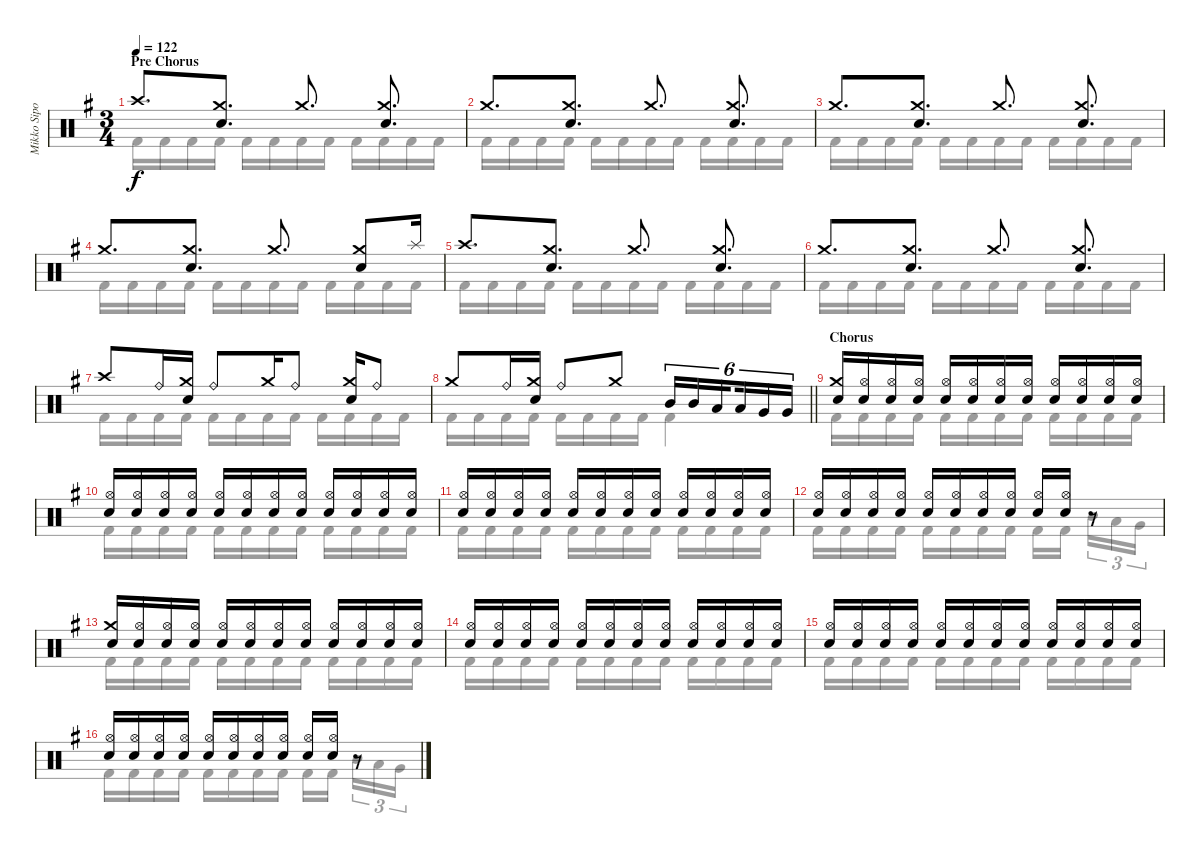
\track ("Mikko Sipola - drums" "Mikko Sipo") {instrument percussion}
\staff {score}
\articulation defaults
\voice
\ts (3 4)
\section ("" "Pre Chorus")
\tempo 122
\clef neutral
\ks eminor "Crash high (hit)".8{d dy f}
("Crash medium (hit)" "Electric Snare (hit)").8{d} "Crash medium (hit)".8{d} ("Crash medium (hit)" "Electric Snare (hit)").8{d} |
"Crash medium (hit)".8{d} ("Crash medium (hit)" "Electric Snare (hit)").8{d} "Crash medium (hit)".8{d} ("Crash medium (hit)" "Electric Snare (hit)").8{d} |
"Crash medium (hit)".8{d} ("Crash medium (hit)" "Electric Snare (hit)").8{d} "Crash medium (hit)".8{d} ("Crash medium (hit)" "Electric Snare (hit)").8{d} |
"Crash medium (hit)".8{d} ("Crash medium (hit)" "Electric Snare (hit)").8{d} "Crash medium (hit)".8{d} ("Crash medium (hit)" "Electric Snare (hit)").8 "Splash (hit)".16 |
"Crash high (hit)".8{d} ("Crash medium (hit)" "Electric Snare (hit)").8{d} "Crash medium (hit)".8{d} ("Crash medium (hit)" "Electric Snare (hit)").8{d} |
"Crash medium (hit)".8{d} ("Crash medium (hit)" "Electric Snare (hit)").8{d} "Crash medium (hit)".8{d} ("Crash medium (hit)" "Electric Snare (hit)").8{d} |
"Crash high (hit)".8 "Ride (bell)".16 ("Crash medium (hit)" "Electric Snare (hit)").16 "Ride (bell)".8 "Crash medium (hit)".16 "Ride (bell)".8 ("Crash medium (hit)" "Electric Snare (hit)").16 "Ride (bell)".8 |
\barLineRight lightlight "Crash medium (hit)".8 "Ride (bell)".16
("Crash medium (hit)" "Electric Snare (hit)").16 "Ride (bell)".8 "Crash medium (hit)".8 "Mid Tom (hit)".16{tu (6 4)} "Mid Tom (hit)".16{tu (6 4)} "Low Tom (hit)".16{tu (6 4) beam splitsecondary} "Low Tom (hit)".16{tu (6 4)} "Very Low Tom (hit)".16{tu (6 4)} "Very Low Tom (hit)".16{tu (6 4)} |
\section ("" "Chorus")
("Crash medium (hit)" "Electric Snare (hit)").16 ("Hi-Hat (open)" "Electric Snare (hit)").16 ("Hi-Hat (open)" "Electric Snare (hit)").16 ("Hi-Hat (open)" "Electric Snare (hit)").16 ("Hi-Hat (open)" "Electric Snare (hit)").16 ("Hi-Hat (open)" "Electric Snare (hit)").16 ("Hi-Hat (open)" "Electric Snare (hit)").16 ("Hi-Hat (open)" "Electric Snare (hit)").16 ("Hi-Hat (open)" "Electric Snare (hit)").16 ("Hi-Hat (open)" "Electric Snare (hit)").16 ("Hi-Hat (open)" "Electric Snare (hit)").16 ("Hi-Hat (open)" "Electric Snare (hit)").16 |
("Hi-Hat (open)" "Electric Snare (hit)").16 ("Hi-Hat (open)" "Electric Snare (hit)").16 ("Hi-Hat (open)" "Electric Snare (hit)").16 ("Hi-Hat (open)" "Electric Snare (hit)").16 ("Hi-Hat (open)" "Electric Snare (hit)").16 ("Hi-Hat (open)" "Electric Snare (hit)").16 ("Hi-Hat (open)" "Electric Snare (hit)").16 ("Hi-Hat (open)" "Electric Snare (hit)").16 ("Hi-Hat (open)" "Electric Snare (hit)").16 ("Hi-Hat (open)" "Electric Snare (hit)").16 ("Hi-Hat (open)" "Electric Snare (hit)").16 ("Hi-Hat (open)" "Electric Snare (hit)").16 |
("Hi-Hat (open)" "Electric Snare (hit)").16 ("Hi-Hat (open)" "Electric Snare (hit)").16 ("Hi-Hat (open)" "Electric Snare (hit)").16 ("Hi-Hat (open)" "Electric Snare (hit)").16 ("Hi-Hat (open)" "Electric Snare (hit)").16 ("Hi-Hat (open)" "Electric Snare (hit)").16 ("Hi-Hat (open)" "Electric Snare (hit)").16 ("Hi-Hat (open)" "Electric Snare (hit)").16 ("Hi-Hat (open)" "Electric Snare (hit)").16 ("Hi-Hat (open)" "Electric Snare (hit)").16 ("Hi-Hat (open)" "Electric Snare (hit)").16 ("Hi-Hat (open)" "Electric Snare (hit)").16 |
("Hi-Hat (open)" "Electric Snare (hit)").16 ("Hi-Hat (open)" "Electric Snare (hit)").16 ("Hi-Hat (open)" "Electric Snare (hit)").16 ("Hi-Hat (open)" "Electric Snare (hit)").16 ("Hi-Hat (open)" "Electric Snare (hit)").16 ("Hi-Hat (open)" "Electric Snare (hit)").16 ("Hi-Hat (open)" "Electric Snare (hit)").16 ("Hi-Hat (open)" "Electric Snare (hit)").16 ("Hi-Hat (open)" "Electric Snare (hit)").16 ("Hi-Hat (open)" "Electric Snare (hit)").16 r.8 |
("Crash medium (hit)" "Electric Snare (hit)").16 ("Hi-Hat (open)" "Electric Snare (hit)").16 ("Hi-Hat (open)" "Electric Snare (hit)").16 ("Hi-Hat (open)" "Electric Snare (hit)").16 ("Hi-Hat (open)" "Electric Snare (hit)").16 ("Hi-Hat (open)" "Electric Snare (hit)").16 ("Hi-Hat (open)" "Electric Snare (hit)").16 ("Hi-Hat (open)" "Electric Snare (hit)").16 ("Hi-Hat (open)" "Electric Snare (hit)").16 ("Hi-Hat (open)" "Electric Snare (hit)").16 ("Hi-Hat (open)" "Electric Snare (hit)").16 ("Hi-Hat (open)" "Electric Snare (hit)").16 |
("Hi-Hat (open)" "Electric Snare (hit)").16 ("Hi-Hat (open)" "Electric Snare (hit)").16 ("Hi-Hat (open)" "Electric Snare (hit)").16 ("Hi-Hat (open)" "Electric Snare (hit)").16 ("Hi-Hat (open)" "Electric Snare (hit)").16 ("Hi-Hat (open)" "Electric Snare (hit)").16 ("Hi-Hat (open)" "Electric Snare (hit)").16 ("Hi-Hat (open)" "Electric Snare (hit)").16 ("Hi-Hat (open)" "Electric Snare (hit)").16 ("Hi-Hat (open)" "Electric Snare (hit)").16 ("Hi-Hat (open)" "Electric Snare (hit)").16 ("Hi-Hat (open)" "Electric Snare (hit)").16 |
("Hi-Hat (open)" "Electric Snare (hit)").16 ("Hi-Hat (open)" "Electric Snare (hit)").16 ("Hi-Hat (open)" "Electric Snare (hit)").16 ("Hi-Hat (open)" "Electric Snare (hit)").16 ("Hi-Hat (open)" "Electric Snare (hit)").16 ("Hi-Hat (open)" "Electric Snare (hit)").16 ("Hi-Hat (open)" "Electric Snare (hit)").16 ("Hi-Hat (open)" "Electric Snare (hit)").16 ("Hi-Hat (open)" "Electric Snare (hit)").16 ("Hi-Hat (open)" "Electric Snare (hit)").16 ("Hi-Hat (open)" "Electric Snare (hit)").16 ("Hi-Hat (open)" "Electric Snare (hit)").16 |
("Hi-Hat (open)" "Electric Snare (hit)").16 ("Hi-Hat (open)" "Electric Snare (hit)").16 ("Hi-Hat (open)" "Electric Snare (hit)").16 ("Hi-Hat (open)" "Electric Snare (hit)").16 ("Hi-Hat (open)" "Electric Snare (hit)").16 ("Hi-Hat (open)" "Electric Snare (hit)").16 ("Hi-Hat (open)" "Electric Snare (hit)").16 ("Hi-Hat (open)" "Electric Snare (hit)").16 ("Hi-Hat (open)" "Electric Snare (hit)").16 ("Hi-Hat (open)" "Electric Snare (hit)").16 r.8
\voice
\clef neutral
\ottava regular
\simile none
\ks eminor "Kick (hit) 2".16{dy f} "Kick (hit) 2".16 "Kick (hit) 2".16 "Kick (hit) 2".16 "Kick (hit) 2".16 "Kick (hit) 2".16 "Kick (hit) 2".16 "Kick (hit) 2".16 "Kick (hit) 2".16 "Kick (hit) 2".16 "Kick (hit) 2".16 "Kick (hit) 2".16
|
"Kick (hit) 2".16 "Kick (hit) 2".16 "Kick (hit) 2".16 "Kick (hit) 2".16 "Kick (hit) 2".16 "Kick (hit) 2".16 "Kick (hit) 2".16 "Kick (hit) 2".16 "Kick (hit) 2".16 "Kick (hit) 2".16 "Kick (hit) 2".16 "Kick (hit) 2".16 |
"Kick (hit) 2".16 "Kick (hit) 2".16 "Kick (hit) 2".16 "Kick (hit) 2".16 "Kick (hit) 2".16 "Kick (hit) 2".16 "Kick (hit) 2".16 "Kick (hit) 2".16 "Kick (hit) 2".16 "Kick (hit) 2".16 "Kick (hit) 2".16 "Kick (hit) 2".16 |
"Kick (hit) 2".16 "Kick (hit) 2".16 "Kick (hit) 2".16 "Kick (hit) 2".16 "Kick (hit) 2".16 "Kick (hit) 2".16 "Kick (hit) 2".16 "Kick (hit) 2".16 "Kick (hit) 2".16 "Kick (hit) 2".16 "Kick (hit) 2".16 "Kick (hit) 2".16 |
"Kick (hit) 2".16 "Kick (hit) 2".16 "Kick (hit) 2".16 "Kick (hit) 2".16 "Kick (hit) 2".16 "Kick (hit) 2".16 "Kick (hit) 2".16 "Kick (hit) 2".16 "Kick (hit) 2".16 "Kick (hit) 2".16 "Kick (hit) 2".16 "Kick (hit) 2".16 |
"Kick (hit) 2".16 "Kick (hit) 2".16 "Kick (hit) 2".16 "Kick (hit) 2".16 "Kick (hit) 2".16 "Kick (hit) 2".16 "Kick (hit) 2".16 "Kick (hit) 2".16 "Kick (hit) 2".16 "Kick (hit) 2".16 "Kick (hit) 2".16 "Kick (hit) 2".16 |
"Kick (hit) 2".16 "Kick (hit) 2".16 "Kick (hit) 2".16 "Kick (hit) 2".16 "Kick (hit) 2".16 "Kick (hit) 2".16 "Kick (hit) 2".16 "Kick (hit) 2".16 "Kick (hit) 2".16 "Kick (hit) 2".16 "Kick (hit) 2".16 "Kick (hit) 2".16 |
\barLineRight lightlight "Kick (hit) 2".16 "Kick (hit) 2".16 "Kick (hit) 2".16 "Kick (hit) 2".16 "Kick (hit) 2".16 "Kick (hit) 2".16 "Kick (hit) 2".16 "Kick (hit) 2".16 "Kick (hit) 2".4
|
"Kick (hit) 2".16 "Kick (hit) 2".16 "Kick (hit) 2".16 "Kick (hit) 2".16 "Kick (hit) 2".16 "Kick (hit) 2".16 "Kick (hit) 2".16 "Kick (hit) 2".16 "Kick (hit) 2".16 "Kick (hit) 2".16 "Kick (hit) 2".16 "Kick (hit) 2".16 |
"Kick (hit) 2".16 "Kick (hit) 2".16 "Kick (hit) 2".16 "Kick (hit) 2".16 "Kick (hit) 2".16 "Kick (hit) 2".16 "Kick (hit) 2".16 "Kick (hit) 2".16 "Kick (hit) 2".16 "Kick (hit) 2".16 "Kick (hit) 2".16 "Kick (hit) 2".16 |
"Kick (hit) 2".16 "Kick (hit) 2".16 "Kick (hit) 2".16 "Kick (hit) 2".16 "Kick (hit) 2".16 "Kick (hit) 2".16 "Kick (hit) 2".16 "Kick (hit) 2".16 "Kick (hit) 2".16 "Kick (hit) 2".16 "Kick (hit) 2".16 "Kick (hit) 2".16 |
"Kick (hit) 2".16 "Kick (hit) 2".16 "Kick (hit) 2".16 "Kick (hit) 2".16 "Kick (hit) 2".16 "Kick (hit) 2".16 "Kick (hit) 2".16 "Kick (hit) 2".16 "Kick (hit) 2".16 "Kick (hit) 2".16{beam splitsecondary} "Mid Tom (hit)".16{tu (3 2)} "Low Tom (hit)".16{tu (3 2)} "Very Low Tom (hit)".16{tu (3 2)} |
"Kick (hit) 2".16 "Kick (hit) 2".16 "Kick (hit) 2".16 "Kick (hit) 2".16 "Kick (hit) 2".16 "Kick (hit) 2".16 "Kick (hit) 2".16 "Kick (hit) 2".16 "Kick (hit) 2".16 "Kick (hit) 2".16 "Kick (hit) 2".16 "Kick (hit) 2".16 |
"Kick (hit) 2".16 "Kick (hit) 2".16 "Kick (hit) 2".16 "Kick (hit) 2".16 "Kick (hit) 2".16 "Kick (hit) 2".16 "Kick (hit) 2".16 "Kick (hit) 2".16 "Kick (hit) 2".16 "Kick (hit) 2".16 "Kick (hit) 2".16 "Kick (hit) 2".16 |
"Kick (hit) 2".16 "Kick (hit) 2".16 "Kick (hit) 2".16 "Kick (hit) 2".16 "Kick (hit) 2".16 "Kick (hit) 2".16 "Kick (hit) 2".16 "Kick (hit) 2".16 "Kick (hit) 2".16 "Kick (hit) 2".16 "Kick (hit) 2".16 "Kick (hit) 2".16 |
"Kick (hit) 2".16 "Kick (hit) 2".16 "Kick (hit) 2".16 "Kick (hit) 2".16 "Kick (hit) 2".16 "Kick (hit) 2".16 "Kick (hit) 2".16 "Kick (hit) 2".16 "Kick (hit) 2".16 "Kick (hit) 2".16{beam splitsecondary} "Mid Tom (hit)".16{tu (3 2)} "Low Tom (hit)".16{tu (3 2)} "Very Low Tom (hit)".16{tu (3 2)}
